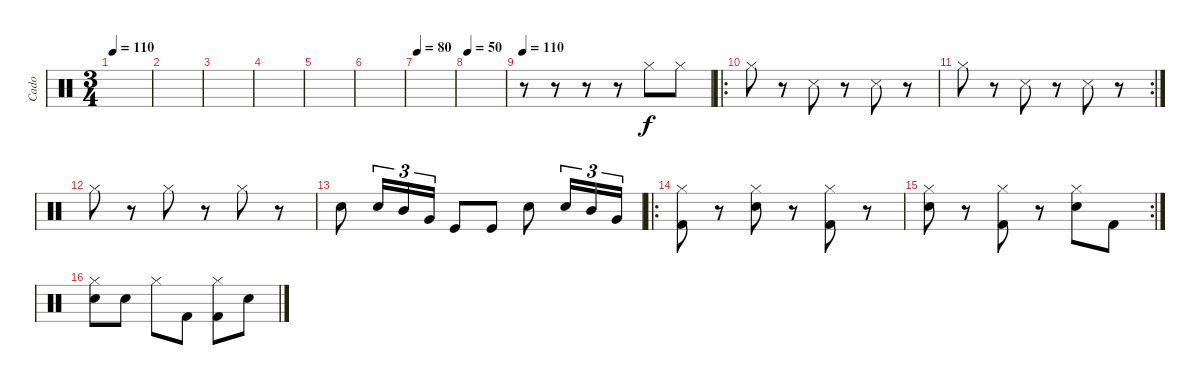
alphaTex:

\track ("Cado" "Cado") {instrument percussion}
\staff {score}
\articulation defaults
\ts (3 4)
\tempo 110
\clef neutral
\ks c
|
|
|
|
|
|
\tempo 80
|
\tempo 50
|
\tempo 110
r.8 r.8 r.8 r.8 "Hi-Hat (closed)".8 "Hi-Hat (closed)".8 |
\ro "Hi-Hat (closed)".8
r.8 "Snare (side stick) 3".8 r.8 "Snare (side stick) 3".8 r.8 |
\rc 2 "Hi-Hat (closed)".8
r.8 "Snare (side stick) 3".8 r.8 "Snare (side stick) 3".8 r.8 |
"Hi-Hat (closed)".8 r.8 "Hi-Hat (closed)".8 r.8 "Hi-Hat (closed)".8 r.8 |
"Snare (hit) 2".8 "Snare (hit) 2".16{tu (3 2)} "Mid Tom (hit)".16{tu (3 2)} "Very Low Tom (hit)".16{tu (3 2)} "Kick (hit)".8 "Kick (hit)".8 "Snare (hit) 2".8 "Snare (hit) 2".16{tu (3 2)} "Mid Tom (hit)".16{tu (3 2)} "Very Low Tom (hit)".16{tu (3 2)} |
\ro
("Hi-Hat (closed)" "Kick (hit) 2").8 r.8 ("Hi-Hat (closed)" "Snare (hit) 2").8 r.8 ("Hi-Hat (closed)" "Kick (hit) 2").8 r.8 |
\rc 2
("Hi-Hat (closed)" "Snare (hit) 2").8 r.8 ("Hi-Hat (closed)" "Kick (hit) 2").8 r.8 ("Hi-Hat (closed)" "Snare (hit) 2").8 "Kick (hit) 2".8 |
("Hi-Hat (closed)" "Snare (hit) 2").8 "Snare (hit) 2".8 "Hi-Hat (closed)".8 "Kick (hit) 2".8 ("Hi-Hat (closed)" "Kick (hit) 2").8 "Snare (hit) 2".8
